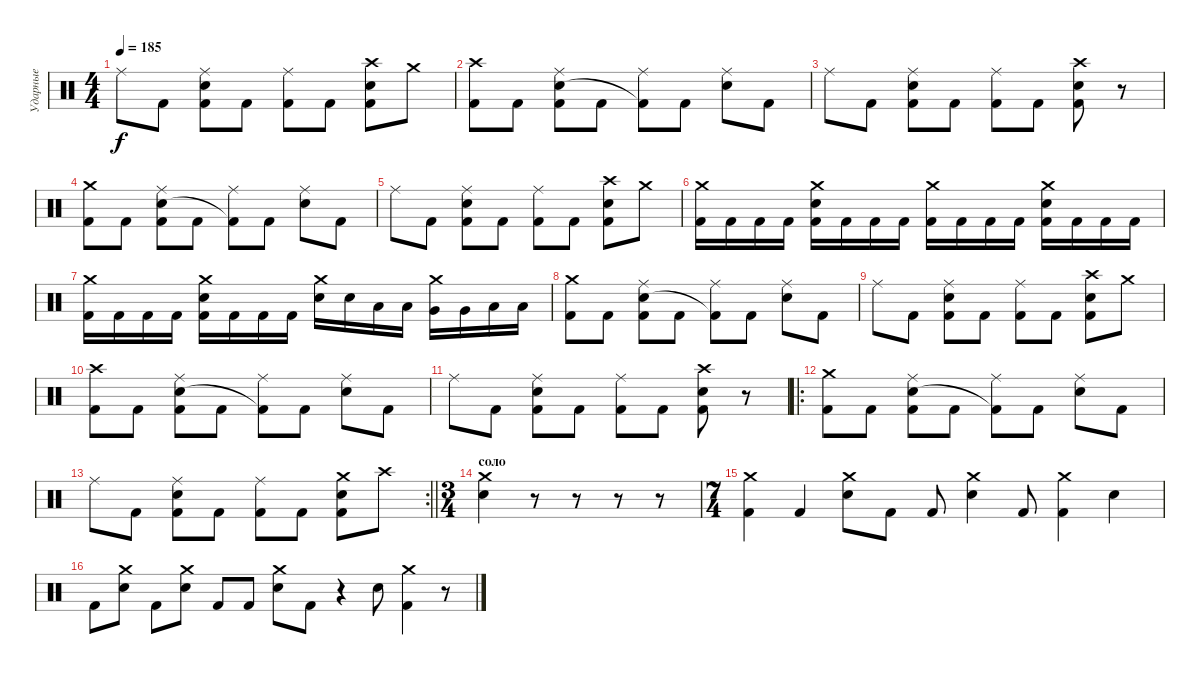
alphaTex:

\track ("Ударные" "Ударные") {instrument percussion}
\staff {score}
\articulation defaults
\ts (4 4)
\tempo 185
\clef neutral
\ks c "Ride (middle)".8{dy f} "Kick (hit) 2".8
("Ride (middle)" "Electric Snare (hit)" "Kick (hit) 2").8 "Kick (hit) 2".8 ("Ride (middle)" "Kick (hit) 2").8 "Kick (hit) 2".8 ("Crash high (hit)" "Electric Snare (hit)" "Kick (hit) 2").8 "Crash medium (hit)".8 |
("Crash high (hit)" "Kick (hit) 2").8 "Kick (hit) 2".8 ("Ride (middle)" "Electric Snare (hit)" "Kick (hit) 2").8 "Kick (hit) 2".8 ("Ride (middle)" "Kick (hit) 2"{t}).8 "Kick (hit) 2".8 ("Ride (middle)" "Electric Snare (hit)").8 "Kick (hit) 2".8 |
"Ride (middle)".8 "Kick (hit) 2".8 ("Ride (middle)" "Electric Snare (hit)" "Kick (hit) 2").8 "Kick (hit) 2".8 ("Ride (middle)" "Kick (hit) 2").8 "Kick (hit) 2".8 ("Crash high (hit)" "Electric Snare (hit)" "Kick (hit) 2").8 r.8 |
("Crash medium (hit)" "Kick (hit) 2").8 "Kick (hit) 2".8 ("Ride (middle)" "Electric Snare (hit)" "Kick (hit) 2").8 "Kick (hit) 2".8 ("Ride (middle)" "Kick (hit) 2"{t}).8 "Kick (hit) 2".8 ("Ride (middle)" "Electric Snare (hit)").8 "Kick (hit) 2".8 |
"Ride (middle)".8 "Kick (hit) 2".8 ("Ride (middle)" "Electric Snare (hit)" "Kick (hit) 2").8 "Kick (hit) 2".8 ("Ride (middle)" "Kick (hit) 2").8 "Kick (hit) 2".8 ("Crash high (hit)" "Electric Snare (hit)" "Kick (hit) 2").8 "Crash medium (hit)".8 |
("Crash medium (hit)" "Kick (hit) 2").16 "Kick (hit) 2".16 "Kick (hit) 2".16 "Kick (hit) 2".16 ("Crash medium (hit)" "Electric Snare (hit)" "Kick (hit) 2").16 "Kick (hit) 2".16 "Kick (hit) 2".16 "Kick (hit) 2".16 ("Crash medium (hit)" "Kick (hit) 2").16 "Kick (hit) 2".16 "Kick (hit) 2".16 "Kick (hit) 2".16 ("Crash medium (hit)" "Electric Snare (hit)" "Kick (hit) 2").16 "Kick (hit) 2".16 "Kick (hit) 2".16 "Kick (hit) 2".16 |
("Crash medium (hit)" "Kick (hit) 2").16 "Kick (hit) 2".16 "Kick (hit) 2".16 "Kick (hit) 2".16 ("Crash medium (hit)" "Electric Snare (hit)" "Kick (hit) 2").16 "Kick (hit) 2".16 "Kick (hit) 2".16 "Kick (hit) 2".16 ("Crash medium (hit)" "Electric Snare (hit)").16 "Electric Snare (hit)".16 "Low Tom (hit)".16 "Low Tom (hit)".16 ("Crash medium (hit)" "Very Low Tom (hit)").16 "Very Low Tom (hit)".16 "Low Floor Tom (hit)".16 "Low Floor Tom (hit)".16 |
("Crash medium (hit)" "Kick (hit) 2").8 "Kick (hit) 2".8 ("Ride (middle)" "Electric Snare (hit)" "Kick (hit) 2").8 "Kick (hit) 2".8 ("Ride (middle)" "Kick (hit) 2"{t}).8 "Kick (hit) 2".8 ("Ride (middle)" "Electric Snare (hit)").8 "Kick (hit) 2".8 |
"Ride (middle)".8 "Kick (hit) 2".8 ("Ride (middle)" "Electric Snare (hit)" "Kick (hit) 2").8 "Kick (hit) 2".8 ("Ride (middle)" "Kick (hit) 2").8 "Kick (hit) 2".8 ("Crash high (hit)" "Electric Snare (hit)" "Kick (hit) 2").8 "Crash medium (hit)".8 |
("Crash high (hit)" "Kick (hit) 2").8 "Kick (hit) 2".8 ("Ride (middle)" "Electric Snare (hit)" "Kick (hit) 2").8 "Kick (hit) 2".8 ("Ride (middle)" "Kick (hit) 2"{t}).8 "Kick (hit) 2".8 ("Ride (middle)" "Electric Snare (hit)").8 "Kick (hit) 2".8 |
"Ride (middle)".8 "Kick (hit) 2".8 ("Ride (middle)" "Electric Snare (hit)" "Kick (hit) 2").8 "Kick (hit) 2".8 ("Ride (middle)" "Kick (hit) 2").8 "Kick (hit) 2".8 ("Crash high (hit)" "Electric Snare (hit)" "Kick (hit) 2").8 r.8 |
\ro
("Crash medium (hit)" "Kick (hit) 2").8 "Kick (hit) 2".8 ("Ride (middle)" "Electric Snare (hit)" "Kick (hit) 2").8 "Kick (hit) 2".8 ("Ride (middle)" "Kick (hit) 2"{t}).8 "Kick (hit) 2".8 ("Ride (middle)" "Electric Snare (hit)").8 "Kick (hit) 2".8 |
\rc 2
\barLineRight lightlight "Ride (middle)".8 "Kick (hit) 2".8
("Ride (middle)" "Electric Snare (hit)" "Kick (hit) 2").8 "Kick (hit) 2".8 ("Ride (middle)" "Kick (hit) 2").8 "Kick (hit) 2".8 ("Crash medium (hit)" "Electric Snare (hit)" "Kick (hit) 2").8 "Crash high (hit)".8 |
\ts (3 4)
\section ("" "соло")
("Crash medium (hit)" "Electric Snare (hit)").4 r.8 r.8 r.8 r.8 |
\ts (7 4)
("Crash medium (hit)" "Kick (hit) 2").4 "Kick (hit) 2".4 ("Crash medium (hit)" "Electric Snare (hit)").8 "Kick (hit) 2".8 "Kick (hit) 2".8 ("Crash medium (hit)" "Electric Snare (hit)").4 "Kick (hit) 2".8 ("Crash medium (hit)" "Kick (hit) 2").4 "Electric Snare (hit)".4 |
"Kick (hit) 2".8 ("Crash medium (hit)" "Electric Snare (hit)").8 "Kick (hit) 2".8 ("Crash medium (hit)" "Electric Snare (hit)").8 "Kick (hit) 2".8 "Kick (hit) 2".8 ("Crash medium (hit)" "Electric Snare (hit)").8 "Kick (hit) 2".8 r.4 "Electric Snare (hit)".8 ("Crash medium (hit)" "Kick (hit) 2").4 r.8
